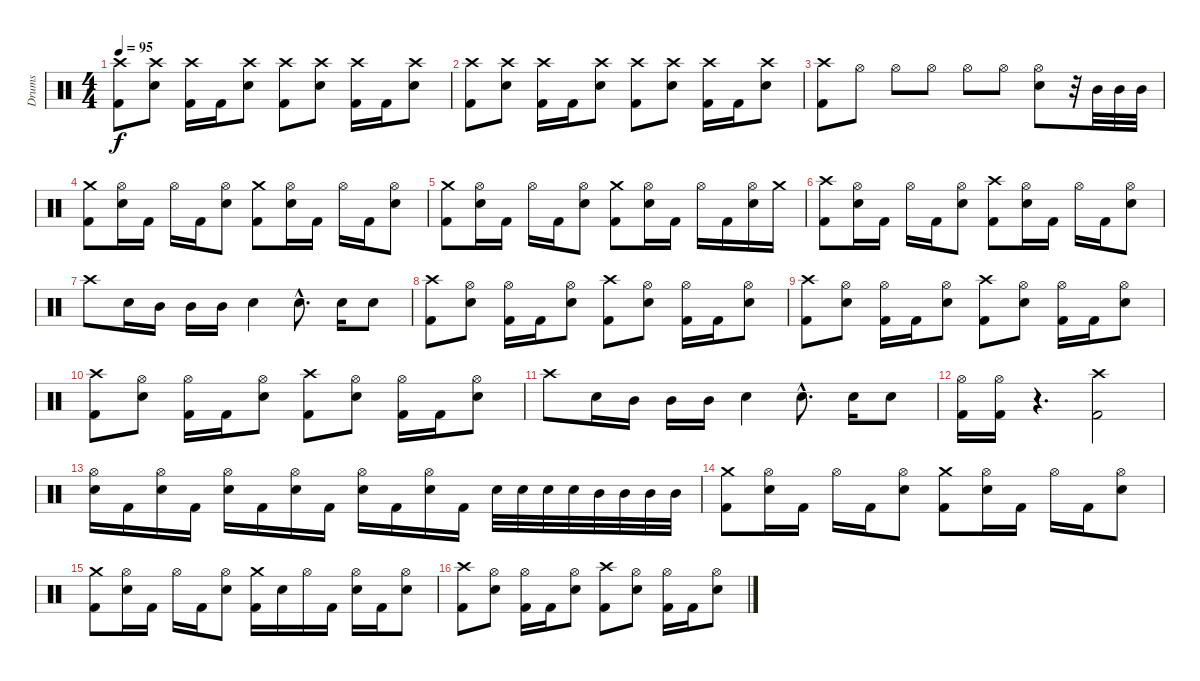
\track ("Drums" "Drums") {instrument percussion}
\staff {score}
\articulation defaults
\ts (4 4)
\tempo 95
\clef neutral
\ks c
("Crash high (hit)" "Kick (hit) 2").8{dy f} ("Crash high (hit)" "Electric Snare (hit)").8 ("Crash high (hit)" "Kick (hit) 2").16 "Kick (hit) 2".16 ("Crash high (hit)" "Electric Snare (hit)").8 ("Crash high (hit)" "Kick (hit) 2").8 ("Crash high (hit)" "Electric Snare (hit)").8 ("Crash high (hit)" "Kick (hit) 2").16 "Kick (hit) 2".16 ("Crash high (hit)" "Electric Snare (hit)").8 |
("Crash high (hit)" "Kick (hit) 2").8 ("Crash high (hit)" "Electric Snare (hit)").8 ("Crash high (hit)" "Kick (hit) 2").16 "Kick (hit) 2".16 ("Crash high (hit)" "Electric Snare (hit)").8 ("Crash high (hit)" "Kick (hit) 2").8 ("Crash high (hit)" "Electric Snare (hit)").8 ("Crash high (hit)" "Kick (hit) 2").16 "Kick (hit) 2".16 ("Crash high (hit)" "Electric Snare (hit)").8 |
("Crash high (hit)" "Kick (hit) 2").8 "Hi-Hat (open)".8 "Hi-Hat (open)".8 "Hi-Hat (open)".8 "Hi-Hat (open)".8 "Hi-Hat (open)".8 ("Hi-Hat (open)" "Electric Snare (hit)").8 r.32 "Mid Tom (hit)".32 "Mid Tom (hit)".32 "Mid Tom (hit)".32 |
("Crash medium (hit)" "Kick (hit) 2").8 ("Hi-Hat (open)" "Electric Snare (hit)").16 "Kick (hit) 2".16 "Hi-Hat (open)".16 "Kick (hit) 2".16 ("Hi-Hat (open)" "Electric Snare (hit)").8 ("Crash medium (hit)" "Kick (hit) 2").8 ("Hi-Hat (open)" "Electric Snare (hit)").16 "Kick (hit) 2".16 "Hi-Hat (open)".16 "Kick (hit) 2".16 ("Hi-Hat (open)" "Electric Snare (hit)").8 |
("Crash medium (hit)" "Kick (hit) 2").8 ("Hi-Hat (open)" "Electric Snare (hit)").16 "Kick (hit) 2".16 "Hi-Hat (open)".16 "Kick (hit) 2".16 ("Hi-Hat (open)" "Electric Snare (hit)").8 ("Crash medium (hit)" "Kick (hit) 2").8 ("Hi-Hat (open)" "Electric Snare (hit)").16 "Kick (hit) 2".16 "Hi-Hat (open)".16 "Kick (hit) 2".16 ("Hi-Hat (open)" "Electric Snare (hit)").16 "Crash medium (hit)".16 |
("Crash high (hit)" "Kick (hit) 2").8 ("Hi-Hat (open)" "Electric Snare (hit)").16 "Kick (hit) 2".16 "Hi-Hat (open)".16 "Kick (hit) 2".16 ("Hi-Hat (open)" "Electric Snare (hit)").8 ("Crash high (hit)" "Kick (hit) 2").8 ("Hi-Hat (open)" "Electric Snare (hit)").16 "Kick (hit) 2".16 "Hi-Hat (open)".16 "Kick (hit) 2".16 ("Hi-Hat (open)" "Electric Snare (hit)").8 |
"Crash high (hit)".8 "Electric Snare (hit)".16 "Mid Tom (hit)".16 "Mid Tom (hit)".16 "Mid Tom (hit)".16 "Electric Snare (hit)".4 "Electric Snare (hit)"{hac}.8{d} "Electric Snare (hit)".16 "Electric Snare (hit)".8 |
("Crash high (hit)" "Kick (hit) 2").8 ("Hi-Hat (open)" "Electric Snare (hit)").8 ("Hi-Hat (open)" "Kick (hit) 2").16 "Kick (hit) 2".16 ("Hi-Hat (open)" "Electric Snare (hit)").8 ("Crash high (hit)" "Kick (hit) 2").8 ("Hi-Hat (open)" "Electric Snare (hit)").8 ("Hi-Hat (open)" "Kick (hit) 2").16 "Kick (hit) 2".16 ("Hi-Hat (open)" "Electric Snare (hit)").8 |
("Crash high (hit)" "Kick (hit) 2").8 ("Hi-Hat (open)" "Electric Snare (hit)").8 ("Hi-Hat (open)" "Kick (hit) 2").16 "Kick (hit) 2".16 ("Hi-Hat (open)" "Electric Snare (hit)").8 ("Crash high (hit)" "Kick (hit) 2").8 ("Hi-Hat (open)" "Electric Snare (hit)").8 ("Hi-Hat (open)" "Kick (hit) 2").16 "Kick (hit) 2".16 ("Hi-Hat (open)" "Electric Snare (hit)").8 |
("Crash high (hit)" "Kick (hit) 2").8 ("Hi-Hat (open)" "Electric Snare (hit)").8 ("Hi-Hat (open)" "Kick (hit) 2").16 "Kick (hit) 2".16 ("Hi-Hat (open)" "Electric Snare (hit)").8 ("Crash high (hit)" "Kick (hit) 2").8 ("Hi-Hat (open)" "Electric Snare (hit)").8 ("Hi-Hat (open)" "Kick (hit) 2").16 "Kick (hit) 2".16 ("Hi-Hat (open)" "Electric Snare (hit)").8 |
"Crash high (hit)".8 "Electric Snare (hit)".16 "Mid Tom (hit)".16 "Mid Tom (hit)".16 "Mid Tom (hit)".16 "Electric Snare (hit)".4 "Electric Snare (hit)"{hac}.8{d} "Electric Snare (hit)".16 "Electric Snare (hit)".8 |
("Hi-Hat (open)" "Kick (hit) 2").16 ("Hi-Hat (open)" "Kick (hit) 2").16 r.4{d} ("Crash high (hit)" "Kick (hit) 2").2 |
("Hi-Hat (open)" "Electric Snare (hit)").16 "Kick (hit) 2".16 ("Hi-Hat (open)" "Electric Snare (hit)").16 "Kick (hit) 2".16 ("Hi-Hat (open)" "Electric Snare (hit)").16 "Kick (hit) 2".16 ("Hi-Hat (open)" "Electric Snare (hit)").16 "Kick (hit) 2".16 ("Hi-Hat (open)" "Electric Snare (hit)").16 "Kick (hit) 2".16 ("Hi-Hat (open)" "Electric Snare (hit)").16 "Kick (hit) 2".16 "Electric Snare (hit)".32 "Electric Snare (hit)".32 "Electric Snare (hit)".32 "Electric Snare (hit)".32 "Mid Tom (hit)".32 "Mid Tom (hit)".32 "Mid Tom (hit)".32 "Mid Tom (hit)".32 |
("Crash medium (hit)" "Kick (hit) 2").8 ("Hi-Hat (open)" "Electric Snare (hit)").16 "Kick (hit) 2".16 "Hi-Hat (open)".16 "Kick (hit) 2".16 ("Hi-Hat (open)" "Electric Snare (hit)").8 ("Crash medium (hit)" "Kick (hit) 2").8 ("Hi-Hat (open)" "Electric Snare (hit)").16 "Kick (hit) 2".16 "Hi-Hat (open)".16 "Kick (hit) 2".16 ("Hi-Hat (open)" "Electric Snare (hit)").8 |
("Crash medium (hit)" "Kick (hit) 2").8 ("Hi-Hat (open)" "Electric Snare (hit)").16 "Kick (hit) 2".16 "Hi-Hat (open)".16 "Kick (hit) 2".16 ("Hi-Hat (open)" "Electric Snare (hit)").8 ("Crash medium (hit)" "Kick (hit) 2").16 "Electric Snare (hit)".16 "Hi-Hat (open)".16 "Kick (hit) 2".16 ("Hi-Hat (open)" "Electric Snare (hit)").16 "Kick (hit) 2".16 ("Hi-Hat (open)" "Electric Snare (hit)").8 |
("Crash high (hit)" "Kick (hit) 2").8 ("Hi-Hat (open)" "Electric Snare (hit)").8 ("Hi-Hat (open)" "Kick (hit) 2").16 "Kick (hit) 2".16 ("Hi-Hat (open)" "Electric Snare (hit)").8 ("Crash high (hit)" "Kick (hit) 2").8 ("Hi-Hat (open)" "Electric Snare (hit)").8 ("Hi-Hat (open)" "Kick (hit) 2").16 "Kick (hit) 2".16 ("Hi-Hat (open)" "Electric Snare (hit)").8
